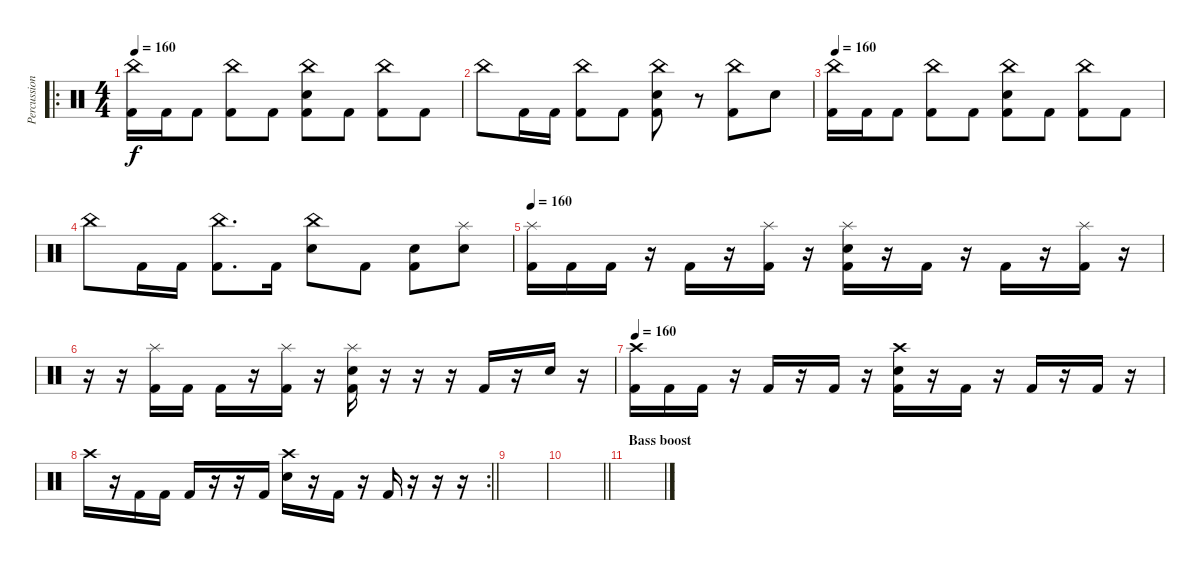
\track ("Percussions" "Percussion") {instrument percussion}
\staff {score}
\articulation defaults
\ro
\ts (4 4)
\tempo 160
\clef neutral
\ks c
("China (hit)" "Kick (hit) 2").16{dy f} "Kick (hit) 2".16 "Kick (hit) 2".8 ("China (hit)" "Kick (hit) 2").8 "Kick (hit) 2".8 ("China (hit)" "Electric Snare (hit)" "Kick (hit) 2").8 "Kick (hit) 2".8 ("China (hit)" "Kick (hit) 2").8 "Kick (hit) 2".8 |
"China (hit)".8 "Kick (hit) 2".16 "Kick (hit) 2".16 ("China (hit)" "Kick (hit) 2").8 "Kick (hit) 2".8 ("China (hit)" "Electric Snare (hit)" "Kick (hit) 2").8 r.8 ("China (hit)" "Kick (hit) 2").8 "Electric Snare (hit)".8 |
\tempo 160
("China (hit)" "Kick (hit) 2").16 "Kick (hit) 2".16 "Kick (hit) 2".8 ("China (hit)" "Kick (hit) 2").8 "Kick (hit) 2".8 ("Electric Snare (hit)" "China (hit)" "Kick (hit) 2").8 "Kick (hit) 2".8 ("China (hit)" "Kick (hit) 2").8 "Kick (hit) 2".8 |
"China (hit)".8 "Kick (hit) 2".16 "Kick (hit) 2".16 ("China (hit)" "Kick (hit) 2").8{d} "Kick (hit) 2".16 ("China (hit)" "Electric Snare (hit)").8 "Kick (hit) 2".8 ("Electric Snare (hit)" "Kick (hit) 2").8 ("Electric Snare (hit)" "Splash (hit)").8 |
\tempo 160
("Splash (hit)" "Kick (hit) 2").16 "Kick (hit) 2".16 "Kick (hit) 2".16 r.16 "Kick (hit) 2".16 r.16 ("Splash (hit)" "Kick (hit) 2").16 r.16 ("Splash (hit)" "Electric Snare (hit)" "Kick (hit) 2").16 r.16 "Kick (hit) 2".16 r.16 "Kick (hit) 2".16 r.16 ("Splash (hit)" "Kick (hit) 2").16 r.16 |
r.16 r.16 ("Splash (hit)" "Kick (hit) 2").16 "Kick (hit) 2".16 "Kick (hit) 2".16 r.16 ("Splash (hit)" "Kick (hit) 2").16 r.16 ("Splash (hit)" "Electric Snare (hit)" "Kick (hit) 2").16 r.16 r.16 r.16 "Kick (hit) 2".16 r.16 "Electric Snare (hit)".16 r.16 |
\tempo 160
("Crash high (hit)" "Kick (hit) 2").16 "Kick (hit) 2".16 "Kick (hit) 2".16 r.16 "Kick (hit) 2".16 r.16 "Kick (hit) 2".16 r.16 ("Crash high (hit)" "Electric Snare (hit)" "Kick (hit) 2").16 r.16 "Kick (hit) 2".16 r.16 "Kick (hit) 2".16 r.16 "Kick (hit) 2".16 r.16 |
\rc 2
\barLineRight lightlight "Crash high (hit)".16
r.16 "Kick (hit) 2".16 "Kick (hit) 2".16 "Kick (hit) 2".16 r.16 r.16 "Kick (hit) 2".16 ("Crash high (hit)" "Electric Snare (hit)").16 r.16 "Kick (hit) 2".16 r.16 "Kick (hit) 2".16 r.16 r.16 r.16 |
|
\barLineRight lightlight
|
\section ("" "Bass boost")
